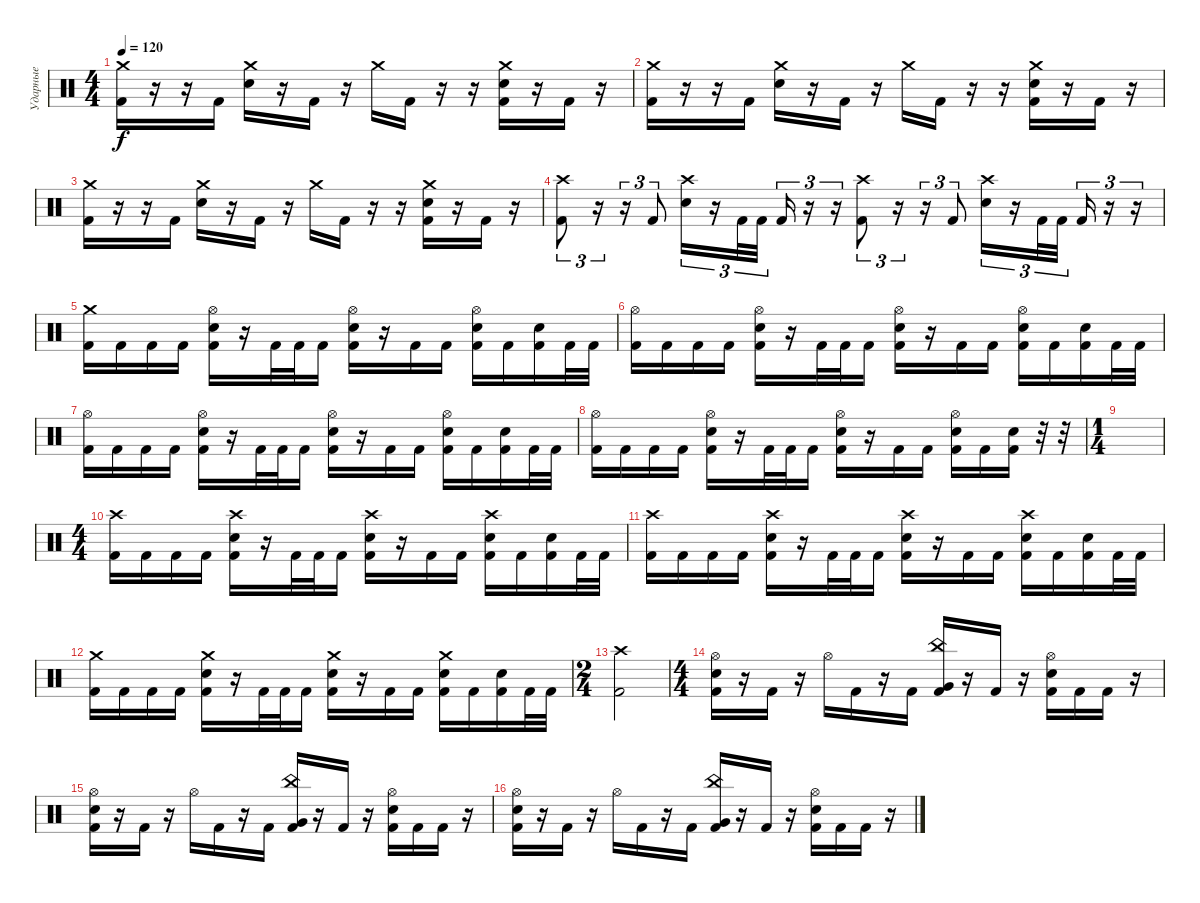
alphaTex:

\track ("Ударные" "Ударные") {instrument percussion}
\staff {score}
\articulation defaults
\ts (4 4)
\tempo 120
\clef neutral
\ks c
("Crash medium (hit)" "Kick (hit) 2").16{dy f} r.16 r.16 "Kick (hit) 2".16 ("Crash medium (hit)" "Electric Snare (hit)").16 r.16 "Kick (hit) 2".16 r.16 "Crash medium (hit)".16 "Kick (hit) 2".16 r.16 r.16 ("Crash medium (hit)" "Electric Snare (hit)" "Kick (hit) 2").16 r.16 "Kick (hit) 2".16 r.16 |
("Crash medium (hit)" "Kick (hit) 2").16 r.16 r.16 "Kick (hit) 2".16 ("Crash medium (hit)" "Electric Snare (hit)").16 r.16 "Kick (hit) 2".16 r.16 "Crash medium (hit)".16 "Kick (hit) 2".16 r.16 r.16 ("Crash medium (hit)" "Electric Snare (hit)" "Kick (hit) 2").16 r.16 "Kick (hit) 2".16 r.16 |
("Crash medium (hit)" "Kick (hit) 2").16 r.16 r.16 "Kick (hit) 2".16 ("Crash medium (hit)" "Electric Snare (hit)").16 r.16 "Kick (hit) 2".16 r.16 "Crash medium (hit)".16 "Kick (hit) 2".16 r.16 r.16 ("Crash medium (hit)" "Electric Snare (hit)" "Kick (hit) 2").16 r.16 "Kick (hit) 2".16 r.16 |
("Crash high (hit)" "Kick (hit) 2").8{tu (3 2)} r.16{tu (3 2)} r.16{tu (3 2)} "Kick (hit) 2".8{tu (3 2)} ("Crash high (hit)" "Electric Snare (hit)").16{tu (3 2)} r.16{tu (3 2)} "Kick (hit) 2".32{tu (3 2)} "Kick (hit) 2".32{tu (3 2) beam splitsecondary} "Kick (hit) 2".16{tu (3 2)} r.16{tu (3 2)} r.16{tu (3 2)} ("Crash high (hit)" "Kick (hit) 2").8{tu (3 2)} r.16{tu (3 2)} r.16{tu (3 2)} "Kick (hit) 2".8{tu (3 2)} ("Crash high (hit)" "Electric Snare (hit)").16{tu (3 2)} r.16{tu (3 2)} "Kick (hit) 2".32{tu (3 2)} "Kick (hit) 2".32{tu (3 2) beam splitsecondary} "Kick (hit) 2".16{tu (3 2)} r.16{tu (3 2)} r.16{tu (3 2)} |
("Crash medium (hit)" "Kick (hit) 2").16 "Kick (hit) 2".16 "Kick (hit) 2".16 "Kick (hit) 2".16 ("Hi-Hat (open)" "Electric Snare (hit)" "Kick (hit) 2").16 r.16 "Kick (hit) 2".32 "Kick (hit) 2".32 "Kick (hit) 2".16 ("Hi-Hat (open)" "Electric Snare (hit)" "Kick (hit) 2").16 r.16 "Kick (hit) 2".16 "Kick (hit) 2".16 ("Hi-Hat (open)" "Electric Snare (hit)" "Kick (hit) 2").16 "Kick (hit) 2".16 ("Electric Snare (hit)" "Kick (hit) 2").16 "Kick (hit) 2".32 "Kick (hit) 2".32 |
("Hi-Hat (open)" "Kick (hit) 2").16 "Kick (hit) 2".16 "Kick (hit) 2".16 "Kick (hit) 2".16 ("Hi-Hat (open)" "Electric Snare (hit)" "Kick (hit) 2").16 r.16 "Kick (hit) 2".32 "Kick (hit) 2".32 "Kick (hit) 2".16 ("Hi-Hat (open)" "Electric Snare (hit)" "Kick (hit) 2").16 r.16 "Kick (hit) 2".16 "Kick (hit) 2".16 ("Hi-Hat (open)" "Electric Snare (hit)" "Kick (hit) 2").16 "Kick (hit) 2".16 ("Electric Snare (hit)" "Kick (hit) 2").16 "Kick (hit) 2".32 "Kick (hit) 2".32 |
("Hi-Hat (open)" "Kick (hit) 2").16 "Kick (hit) 2".16 "Kick (hit) 2".16 "Kick (hit) 2".16 ("Hi-Hat (open)" "Electric Snare (hit)" "Kick (hit) 2").16 r.16 "Kick (hit) 2".32 "Kick (hit) 2".32 "Kick (hit) 2".16 ("Hi-Hat (open)" "Electric Snare (hit)" "Kick (hit) 2").16 r.16 "Kick (hit) 2".16 "Kick (hit) 2".16 ("Hi-Hat (open)" "Electric Snare (hit)" "Kick (hit) 2").16 "Kick (hit) 2".16 ("Electric Snare (hit)" "Kick (hit) 2").16 "Kick (hit) 2".32 "Kick (hit) 2".32 |
("Hi-Hat (open)" "Kick (hit) 2").16 "Kick (hit) 2".16 "Kick (hit) 2".16 "Kick (hit) 2".16 ("Hi-Hat (open)" "Electric Snare (hit)" "Kick (hit) 2").16 r.16 "Kick (hit) 2".32 "Kick (hit) 2".32 "Kick (hit) 2".16 ("Hi-Hat (open)" "Electric Snare (hit)" "Kick (hit) 2").16 r.16 "Kick (hit) 2".16 "Kick (hit) 2".16 ("Hi-Hat (open)" "Electric Snare (hit)" "Kick (hit) 2").16 "Kick (hit) 2".16 ("Electric Snare (hit)" "Kick (hit) 2").16 r.32 r.32 |
\ts (1 4)
|
\ts (4 4)
("Crash high (hit)" "Kick (hit) 2").16 "Kick (hit) 2".16 "Kick (hit) 2".16 "Kick (hit) 2".16 ("Crash high (hit)" "Electric Snare (hit)" "Kick (hit) 2").16 r.16 "Kick (hit) 2".32 "Kick (hit) 2".32 "Kick (hit) 2".16 ("Crash high (hit)" "Electric Snare (hit)" "Kick (hit) 2").16 r.16 "Kick (hit) 2".16 "Kick (hit) 2".16 ("Crash high (hit)" "Electric Snare (hit)" "Kick (hit) 2").16 "Kick (hit) 2".16 ("Electric Snare (hit)" "Kick (hit) 2").16 "Kick (hit) 2".32 "Kick (hit) 2".32 |
("Crash high (hit)" "Kick (hit) 2").16 "Kick (hit) 2".16 "Kick (hit) 2".16 "Kick (hit) 2".16 ("Crash high (hit)" "Electric Snare (hit)" "Kick (hit) 2").16 r.16 "Kick (hit) 2".32 "Kick (hit) 2".32 "Kick (hit) 2".16 ("Crash high (hit)" "Electric Snare (hit)" "Kick (hit) 2").16 r.16 "Kick (hit) 2".16 "Kick (hit) 2".16 ("Crash high (hit)" "Electric Snare (hit)" "Kick (hit) 2").16 "Kick (hit) 2".16 ("Electric Snare (hit)" "Kick (hit) 2").16 "Kick (hit) 2".32 "Kick (hit) 2".32 |
("Crash medium (hit)" "Kick (hit) 2").16 "Kick (hit) 2".16 "Kick (hit) 2".16 "Kick (hit) 2".16 ("Crash medium (hit)" "Electric Snare (hit)" "Kick (hit) 2").16 r.16 "Kick (hit) 2".32 "Kick (hit) 2".32 "Kick (hit) 2".16 ("Crash medium (hit)" "Electric Snare (hit)" "Kick (hit) 2").16 r.16 "Kick (hit) 2".16 "Kick (hit) 2".16 ("Crash medium (hit)" "Electric Snare (hit)" "Kick (hit) 2").16 "Kick (hit) 2".16 ("Electric Snare (hit)" "Kick (hit) 2").16 "Kick (hit) 2".32 "Kick (hit) 2".32 |
\ts (2 4)
("Crash high (hit)" "Kick (hit) 2").2 |
\ts (4 4)
("Hi-Hat (open)" "Electric Snare (hit)" "Kick (hit) 2").16 r.16 "Kick (hit) 2".16 r.16 "Hi-Hat (open)".16 "Kick (hit) 2".16 r.16 "Kick (hit) 2".16 ("China (hit)" "Very Low Tom (hit)" "Kick (hit) 2").16 r.16 "Kick (hit) 2".16 r.16 ("Hi-Hat (open)" "Electric Snare (hit)" "Kick (hit) 2").16 "Kick (hit) 2".16 "Kick (hit) 2".16 r.16 |
("Hi-Hat (open)" "Electric Snare (hit)" "Kick (hit) 2").16 r.16 "Kick (hit) 2".16 r.16 "Hi-Hat (open)".16 "Kick (hit) 2".16 r.16 "Kick (hit) 2".16 ("China (hit)" "Very Low Tom (hit)" "Kick (hit) 2").16 r.16 "Kick (hit) 2".16 r.16 ("Hi-Hat (open)" "Electric Snare (hit)" "Kick (hit) 2").16 "Kick (hit) 2".16 "Kick (hit) 2".16 r.16 |
("Hi-Hat (open)" "Electric Snare (hit)" "Kick (hit) 2").16 r.16 "Kick (hit) 2".16 r.16 "Hi-Hat (open)".16 "Kick (hit) 2".16 r.16 "Kick (hit) 2".16 ("China (hit)" "Very Low Tom (hit)" "Kick (hit) 2").16 r.16 "Kick (hit) 2".16 r.16 ("Hi-Hat (open)" "Electric Snare (hit)" "Kick (hit) 2").16 "Kick (hit) 2".16 "Kick (hit) 2".16 r.16
